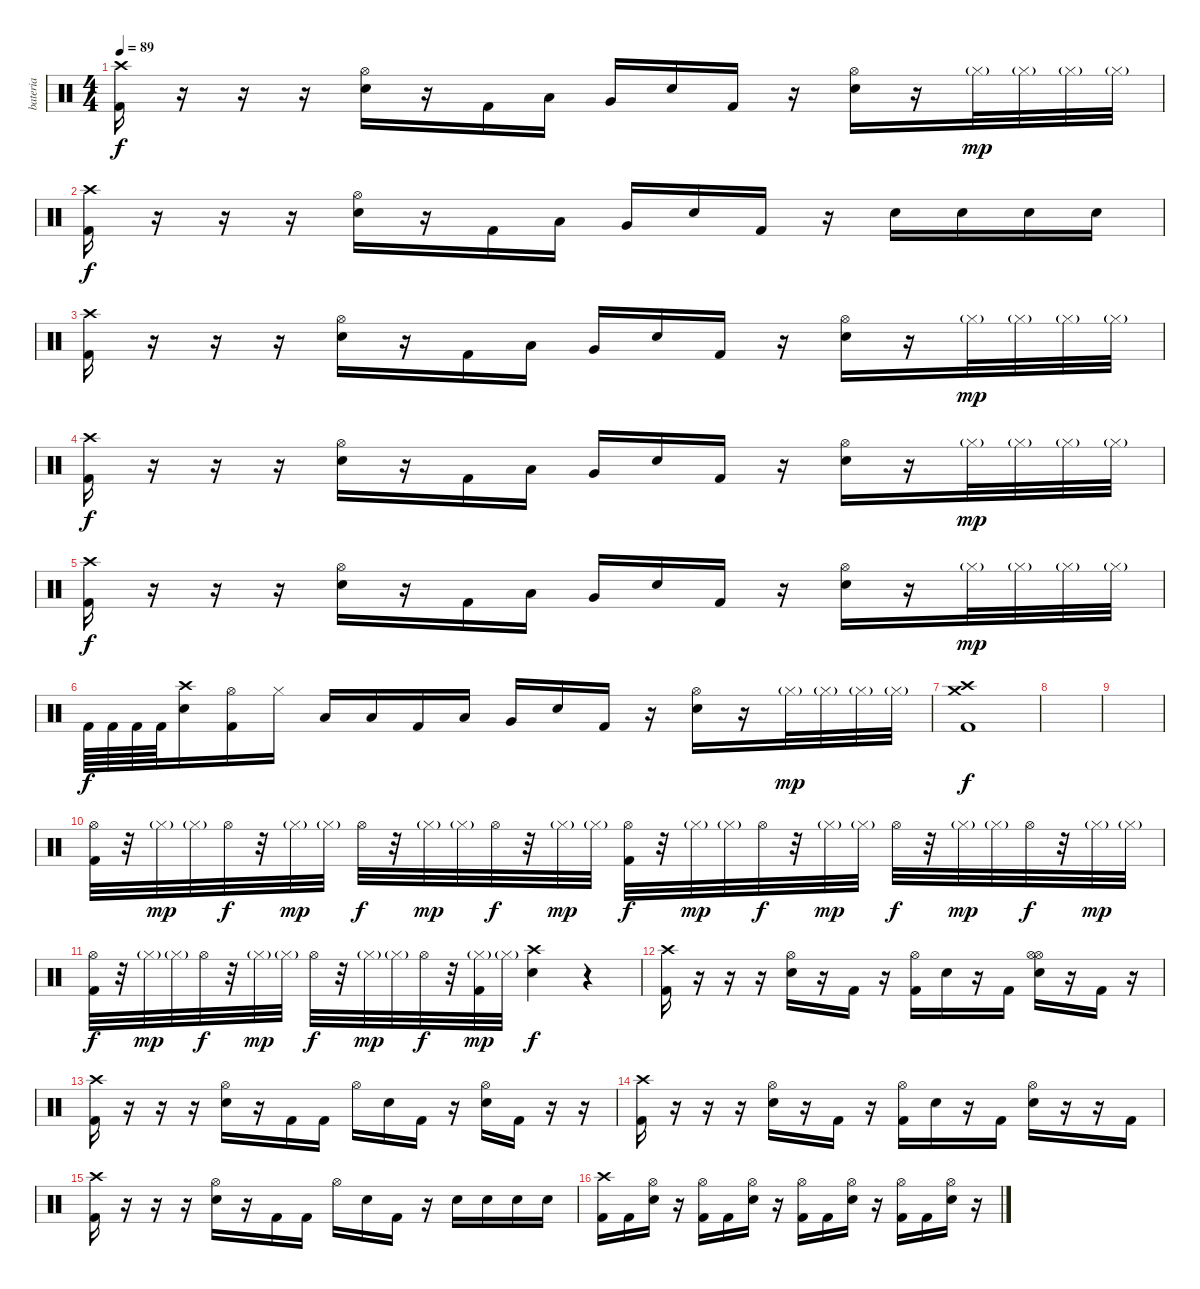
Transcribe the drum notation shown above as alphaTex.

\track ("bateria" "bateria") {instrument percussion}
\staff {score}
\articulation defaults
\ts (4 4)
\tempo 89
\clef neutral
\ks c
("Crash high (hit)" "Kick (hit) 2").16{dy f} r.16 r.16 r.16 ("Hi-Hat (open)" "Electric Snare (hit)").16 r.16 "Kick (hit) 2".16 "Low Tom (hit)".16 "Very Low Tom (hit)".16 "Electric Snare (hit)".16 "Kick (hit) 2".16 r.16 ("Hi-Hat (open)" "Electric Snare (hit)").16 r.16 "Hi-Hat (closed)"{g}.32{dy mp} "Hi-Hat (closed)"{g}.32 "Hi-Hat (closed)"{g}.32 "Hi-Hat (closed)"{g}.32 |
("Crash high (hit)" "Kick (hit) 2").16{dy f} r.16 r.16 r.16 ("Hi-Hat (open)" "Electric Snare (hit)").16 r.16 "Kick (hit) 2".16 "Low Tom (hit)".16 "Very Low Tom (hit)".16 "Electric Snare (hit)".16 "Kick (hit) 2".16 r.16 "Electric Snare (hit)".16 "Electric Snare (hit)".16 "Electric Snare (hit)".16 "Electric Snare (hit)".16 |
("Crash high (hit)" "Kick (hit) 2").16 r.16 r.16 r.16 ("Hi-Hat (open)" "Electric Snare (hit)").16 r.16 "Kick (hit) 2".16 "Low Tom (hit)".16 "Very Low Tom (hit)".16 "Electric Snare (hit)".16 "Kick (hit) 2".16 r.16 ("Hi-Hat (open)" "Electric Snare (hit)").16 r.16 "Hi-Hat (closed)"{g}.32{dy mp} "Hi-Hat (closed)"{g}.32 "Hi-Hat (closed)"{g}.32 "Hi-Hat (closed)"{g}.32 |
("Crash high (hit)" "Kick (hit) 2").16{dy f} r.16 r.16 r.16 ("Hi-Hat (open)" "Electric Snare (hit)").16 r.16 "Kick (hit) 2".16 "Low Tom (hit)".16 "Very Low Tom (hit)".16 "Electric Snare (hit)".16 "Kick (hit) 2".16 r.16 ("Hi-Hat (open)" "Electric Snare (hit)").16 r.16 "Hi-Hat (closed)"{g}.32{dy mp} "Hi-Hat (closed)"{g}.32 "Hi-Hat (closed)"{g}.32 "Hi-Hat (closed)"{g}.32 |
("Crash high (hit)" "Kick (hit) 2").16{dy f} r.16 r.16 r.16 ("Hi-Hat (open)" "Electric Snare (hit)").16 r.16 "Kick (hit) 2".16 "Low Tom (hit)".16 "Very Low Tom (hit)".16 "Electric Snare (hit)".16 "Kick (hit) 2".16 r.16 ("Hi-Hat (open)" "Electric Snare (hit)").16 r.16 "Hi-Hat (closed)"{g}.32{dy mp} "Hi-Hat (closed)"{g}.32 "Hi-Hat (closed)"{g}.32 "Hi-Hat (closed)"{g}.32 |
"Kick (hit) 2".64{dy f} "Kick (hit) 2".64 "Kick (hit) 2".64 "Kick (hit) 2".64 ("Crash high (hit)" "Electric Snare (hit)").16 ("Hi-Hat (open)" "Kick (hit) 2").16 "Hi-Hat (closed)".16 "Low Tom (hit)".16 "Low Floor Tom (hit)".16 "Kick (hit) 2".16 "Low Tom (hit)".16 "Very Low Tom (hit)".16 "Electric Snare (hit)".16 "Kick (hit) 2".16 r.16 ("Hi-Hat (open)" "Electric Snare (hit)").16 r.16 "Hi-Hat (closed)"{g}.32{dy mp} "Hi-Hat (closed)"{g}.32 "Hi-Hat (closed)"{g}.32 "Hi-Hat (closed)"{g}.32 |
("Crash high (hit)" "Crash medium (hit)" "Kick (hit) 2").1{dy f} |
|
|
("Hi-Hat (open)" "Kick (hit) 2").32 r.32 "Hi-Hat (closed)"{g}.32{dy mp} "Hi-Hat (closed)"{g}.32 "Hi-Hat (open)".32{dy f} r.32 "Hi-Hat (closed)"{g}.32{dy mp} "Hi-Hat (closed)"{g}.32 "Hi-Hat (open)".32{dy f} r.32 "Hi-Hat (closed)"{g}.32{dy mp} "Hi-Hat (closed)"{g}.32 "Hi-Hat (open)".32{dy f} r.32 "Hi-Hat (closed)"{g}.32{dy mp} "Hi-Hat (closed)"{g}.32 ("Hi-Hat (open)" "Kick (hit) 2").32{dy f} r.32 "Hi-Hat (closed)"{g}.32{dy mp} "Hi-Hat (closed)"{g}.32 "Hi-Hat (open)".32{dy f} r.32 "Hi-Hat (closed)"{g}.32{dy mp} "Hi-Hat (closed)"{g}.32 "Hi-Hat (open)".32{dy f} r.32 "Hi-Hat (closed)"{g}.32{dy mp} "Hi-Hat (closed)"{g}.32 "Hi-Hat (open)".32{dy f} r.32 "Hi-Hat (closed)"{g}.32{dy mp} "Hi-Hat (closed)"{g}.32 |
("Hi-Hat (open)" "Kick (hit) 2").32{dy f} r.32 "Hi-Hat (closed)"{g}.32{dy mp} "Hi-Hat (closed)"{g}.32 "Hi-Hat (open)".32{dy f} r.32 "Hi-Hat (closed)"{g}.32{dy mp} "Hi-Hat (closed)"{g}.32 "Hi-Hat (open)".32{dy f} r.32 "Hi-Hat (closed)"{g}.32{dy mp} "Hi-Hat (closed)"{g}.32 "Hi-Hat (open)".32{dy f} r.32 ("Hi-Hat (closed)"{g} "Kick (hit) 2").32{dy mp} "Hi-Hat (closed)"{g}.32 ("Crash high (hit)" "Electric Snare (hit)").4{dy f} r.4 |
("Crash high (hit)" "Kick (hit) 2").16 r.16 r.16 r.16 ("Hi-Hat (open)" "Electric Snare (hit)").16 r.16 "Kick (hit) 2".16 r.16 ("Hi-Hat (open)" "Kick (hit) 2").16 "Electric Snare (hit)".16 r.16 "Kick (hit) 2".16 ("Hi-Hat (open)" "Hi-Hat (open)" "Electric Snare (hit)").16 r.16 "Kick (hit) 2".16 r.16 |
("Crash high (hit)" "Kick (hit) 2").16 r.16 r.16 r.16 ("Hi-Hat (open)" "Electric Snare (hit)").16 r.16 "Kick (hit) 2".16 "Kick (hit) 2".16 "Hi-Hat (open)".16 "Electric Snare (hit)".16 "Kick (hit) 2".16 r.16 ("Hi-Hat (open)" "Electric Snare (hit)").16 "Kick (hit) 2".16 r.16 r.16 |
("Crash high (hit)" "Kick (hit) 2").16 r.16 r.16 r.16 ("Hi-Hat (open)" "Electric Snare (hit)").16 r.16 "Kick (hit) 2".16 r.16 ("Hi-Hat (open)" "Kick (hit) 2").16 "Electric Snare (hit)".16 r.16 "Kick (hit) 2".16 ("Hi-Hat (open)" "Electric Snare (hit)").16 r.16 r.16 "Kick (hit) 2".16 |
("Crash high (hit)" "Kick (hit) 2").16 r.16 r.16 r.16 ("Hi-Hat (open)" "Electric Snare (hit)").16 r.16 "Kick (hit) 2".16 "Kick (hit) 2".16 "Hi-Hat (open)".16 "Electric Snare (hit)".16 "Kick (hit) 2".16 r.16 "Electric Snare (hit)".16 "Electric Snare (hit)".16 "Electric Snare (hit)".16 "Electric Snare (hit)".16 |
("Crash high (hit)" "Kick (hit) 2").16 "Kick (hit) 2".16 ("Hi-Hat (open)" "Electric Snare (hit)").16 r.16 ("Hi-Hat (open)" "Kick (hit) 2").16 "Kick (hit) 2".16 ("Hi-Hat (open)" "Electric Snare (hit)").16 r.16 ("Hi-Hat (open)" "Kick (hit) 2").16 "Kick (hit) 2".16 ("Hi-Hat (open)" "Electric Snare (hit)").16 r.16 ("Hi-Hat (open)" "Kick (hit) 2").16 "Kick (hit) 2".16 ("Hi-Hat (open)" "Electric Snare (hit)").16 r.16
